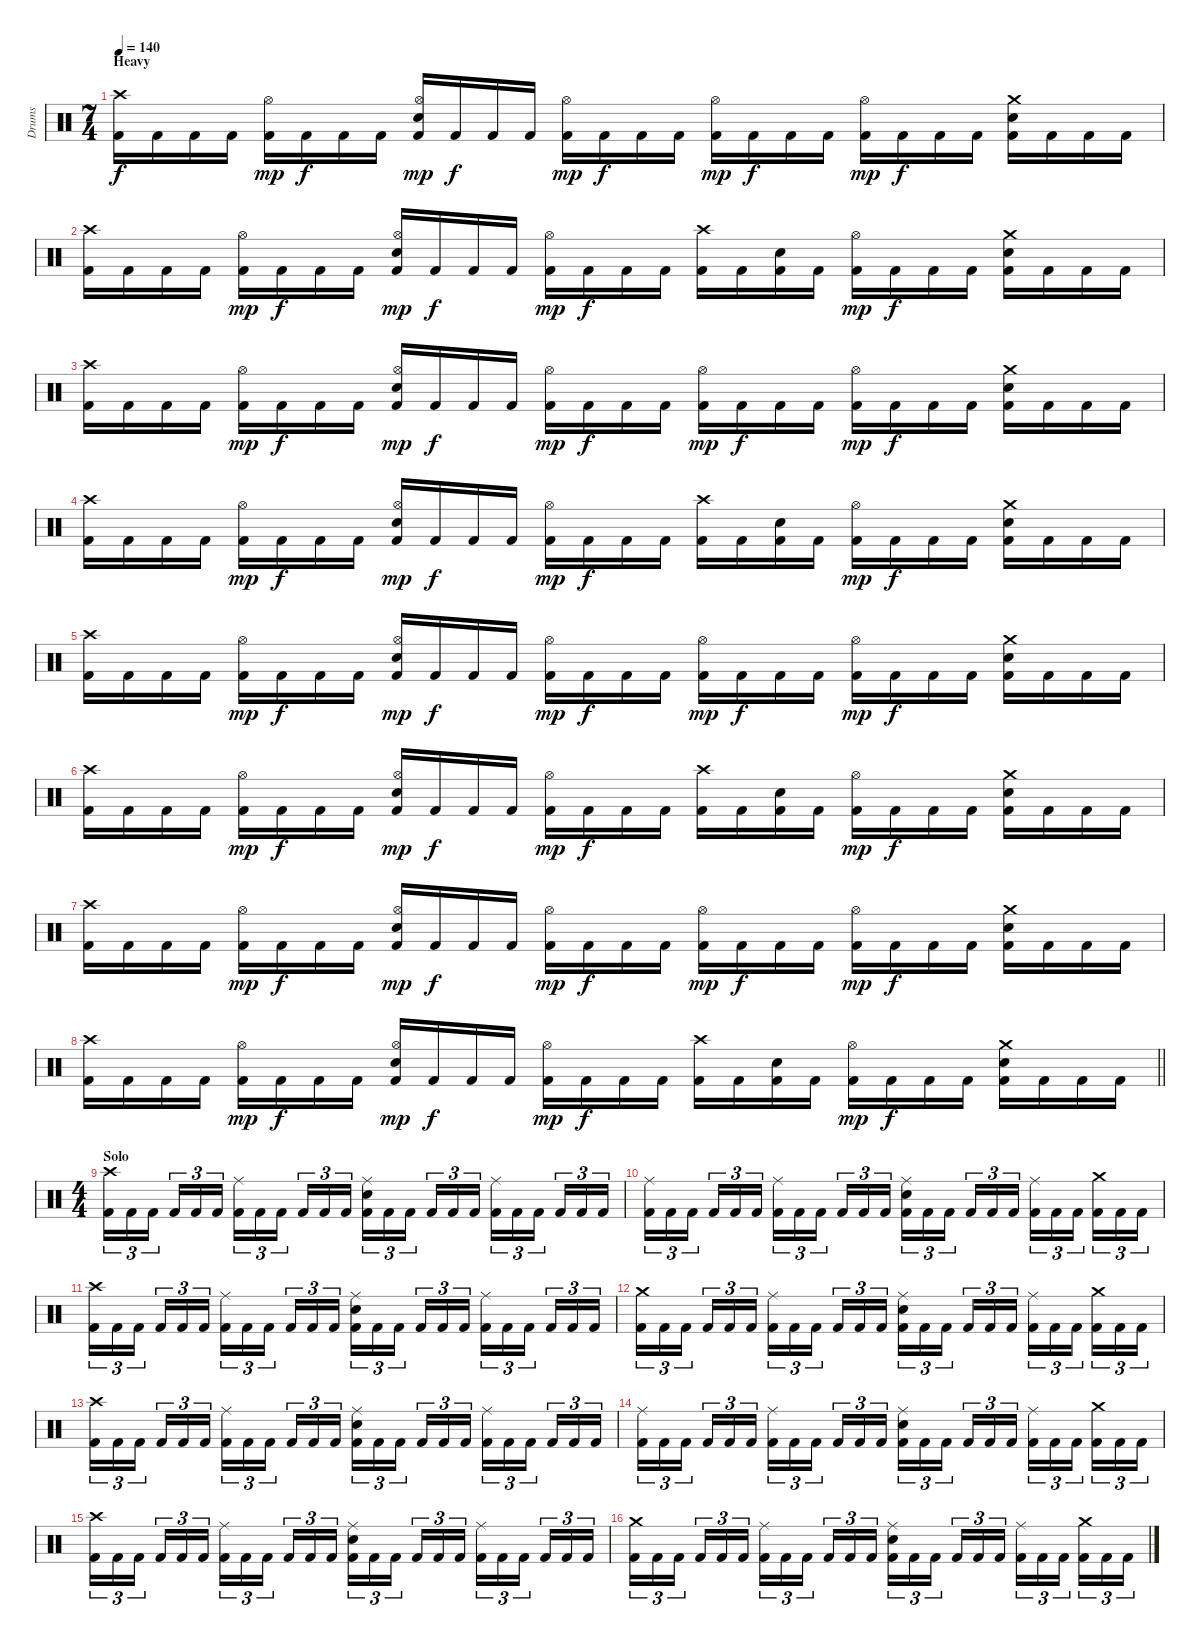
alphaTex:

\track ("Drums" "Drums") {instrument percussion}
\staff {score}
\articulation defaults
\ts (7 4)
\section ("" "Heavy")
\tempo 140
\clef neutral
\ks c
("Crash high (hit)" "Kick (hit) 2").16{dy f} "Kick (hit) 2".16 "Kick (hit) 2".16 "Kick (hit) 2".16 ("Hi-Hat (open)" "Kick (hit) 2").16{dy mp} "Kick (hit) 2".16{dy f} "Kick (hit) 2".16 "Kick (hit) 2".16 ("Hi-Hat (open)" "Snare (hit) 2" "Kick (hit) 2").16{dy mp} "Kick (hit) 2".16{dy f} "Kick (hit) 2".16 "Kick (hit) 2".16 ("Hi-Hat (open)" "Kick (hit) 2").16{dy mp} "Kick (hit) 2".16{dy f} "Kick (hit) 2".16 "Kick (hit) 2".16 ("Hi-Hat (open)" "Kick (hit) 2").16{dy mp} "Kick (hit) 2".16{dy f} "Kick (hit) 2".16 "Kick (hit) 2".16 ("Hi-Hat (open)" "Kick (hit) 2").16{dy mp} "Kick (hit) 2".16{dy f} "Kick (hit) 2".16 "Kick (hit) 2".16 ("Crash medium (hit)" "Snare (hit) 2" "Kick (hit) 2").16 "Kick (hit) 2".16 "Kick (hit) 2".16 "Kick (hit) 2".16 |
("Crash high (hit)" "Kick (hit) 2").16 "Kick (hit) 2".16 "Kick (hit) 2".16 "Kick (hit) 2".16 ("Hi-Hat (open)" "Kick (hit) 2").16{dy mp} "Kick (hit) 2".16{dy f} "Kick (hit) 2".16 "Kick (hit) 2".16 ("Hi-Hat (open)" "Snare (hit) 2" "Kick (hit) 2").16{dy mp} "Kick (hit) 2".16{dy f} "Kick (hit) 2".16 "Kick (hit) 2".16 ("Hi-Hat (open)" "Kick (hit) 2").16{dy mp} "Kick (hit) 2".16{dy f} "Kick (hit) 2".16 "Kick (hit) 2".16 ("Crash high (hit)" "Kick (hit) 2").16 "Kick (hit) 2".16 ("Snare (hit) 2" "Kick (hit) 2").16 "Kick (hit) 2".16 ("Hi-Hat (open)" "Kick (hit) 2").16{dy mp} "Kick (hit) 2".16{dy f} "Kick (hit) 2".16 "Kick (hit) 2".16 ("Crash medium (hit)" "Snare (hit) 2" "Kick (hit) 2").16 "Kick (hit) 2".16 "Kick (hit) 2".16 "Kick (hit) 2".16 |
("Crash high (hit)" "Kick (hit) 2").16 "Kick (hit) 2".16 "Kick (hit) 2".16 "Kick (hit) 2".16 ("Hi-Hat (open)" "Kick (hit) 2").16{dy mp} "Kick (hit) 2".16{dy f} "Kick (hit) 2".16 "Kick (hit) 2".16 ("Hi-Hat (open)" "Snare (hit) 2" "Kick (hit) 2").16{dy mp} "Kick (hit) 2".16{dy f} "Kick (hit) 2".16 "Kick (hit) 2".16 ("Hi-Hat (open)" "Kick (hit) 2").16{dy mp} "Kick (hit) 2".16{dy f} "Kick (hit) 2".16 "Kick (hit) 2".16 ("Hi-Hat (open)" "Kick (hit) 2").16{dy mp} "Kick (hit) 2".16{dy f} "Kick (hit) 2".16 "Kick (hit) 2".16 ("Hi-Hat (open)" "Kick (hit) 2").16{dy mp} "Kick (hit) 2".16{dy f} "Kick (hit) 2".16 "Kick (hit) 2".16 ("Crash medium (hit)" "Snare (hit) 2" "Kick (hit) 2").16 "Kick (hit) 2".16 "Kick (hit) 2".16 "Kick (hit) 2".16 |
("Crash high (hit)" "Kick (hit) 2").16 "Kick (hit) 2".16 "Kick (hit) 2".16 "Kick (hit) 2".16 ("Hi-Hat (open)" "Kick (hit) 2").16{dy mp} "Kick (hit) 2".16{dy f} "Kick (hit) 2".16 "Kick (hit) 2".16 ("Hi-Hat (open)" "Snare (hit) 2" "Kick (hit) 2").16{dy mp} "Kick (hit) 2".16{dy f} "Kick (hit) 2".16 "Kick (hit) 2".16 ("Hi-Hat (open)" "Kick (hit) 2").16{dy mp} "Kick (hit) 2".16{dy f} "Kick (hit) 2".16 "Kick (hit) 2".16 ("Crash high (hit)" "Kick (hit) 2").16 "Kick (hit) 2".16 ("Snare (hit) 2" "Kick (hit) 2").16 "Kick (hit) 2".16 ("Hi-Hat (open)" "Kick (hit) 2").16{dy mp} "Kick (hit) 2".16{dy f} "Kick (hit) 2".16 "Kick (hit) 2".16 ("Crash medium (hit)" "Snare (hit) 2" "Kick (hit) 2").16 "Kick (hit) 2".16 "Kick (hit) 2".16 "Kick (hit) 2".16 |
("Crash high (hit)" "Kick (hit) 2").16 "Kick (hit) 2".16 "Kick (hit) 2".16 "Kick (hit) 2".16 ("Hi-Hat (open)" "Kick (hit) 2").16{dy mp} "Kick (hit) 2".16{dy f} "Kick (hit) 2".16 "Kick (hit) 2".16 ("Hi-Hat (open)" "Snare (hit) 2" "Kick (hit) 2").16{dy mp} "Kick (hit) 2".16{dy f} "Kick (hit) 2".16 "Kick (hit) 2".16 ("Hi-Hat (open)" "Kick (hit) 2").16{dy mp} "Kick (hit) 2".16{dy f} "Kick (hit) 2".16 "Kick (hit) 2".16 ("Hi-Hat (open)" "Kick (hit) 2").16{dy mp} "Kick (hit) 2".16{dy f} "Kick (hit) 2".16 "Kick (hit) 2".16 ("Hi-Hat (open)" "Kick (hit) 2").16{dy mp} "Kick (hit) 2".16{dy f} "Kick (hit) 2".16 "Kick (hit) 2".16 ("Crash medium (hit)" "Snare (hit) 2" "Kick (hit) 2").16 "Kick (hit) 2".16 "Kick (hit) 2".16 "Kick (hit) 2".16 |
("Crash high (hit)" "Kick (hit) 2").16 "Kick (hit) 2".16 "Kick (hit) 2".16 "Kick (hit) 2".16 ("Hi-Hat (open)" "Kick (hit) 2").16{dy mp} "Kick (hit) 2".16{dy f} "Kick (hit) 2".16 "Kick (hit) 2".16 ("Hi-Hat (open)" "Snare (hit) 2" "Kick (hit) 2").16{dy mp} "Kick (hit) 2".16{dy f} "Kick (hit) 2".16 "Kick (hit) 2".16 ("Hi-Hat (open)" "Kick (hit) 2").16{dy mp} "Kick (hit) 2".16{dy f} "Kick (hit) 2".16 "Kick (hit) 2".16 ("Crash high (hit)" "Kick (hit) 2").16 "Kick (hit) 2".16 ("Snare (hit) 2" "Kick (hit) 2").16 "Kick (hit) 2".16 ("Hi-Hat (open)" "Kick (hit) 2").16{dy mp} "Kick (hit) 2".16{dy f} "Kick (hit) 2".16 "Kick (hit) 2".16 ("Crash medium (hit)" "Snare (hit) 2" "Kick (hit) 2").16 "Kick (hit) 2".16 "Kick (hit) 2".16 "Kick (hit) 2".16 |
("Crash high (hit)" "Kick (hit) 2").16 "Kick (hit) 2".16 "Kick (hit) 2".16 "Kick (hit) 2".16 ("Hi-Hat (open)" "Kick (hit) 2").16{dy mp} "Kick (hit) 2".16{dy f} "Kick (hit) 2".16 "Kick (hit) 2".16 ("Hi-Hat (open)" "Snare (hit) 2" "Kick (hit) 2").16{dy mp} "Kick (hit) 2".16{dy f} "Kick (hit) 2".16 "Kick (hit) 2".16 ("Hi-Hat (open)" "Kick (hit) 2").16{dy mp} "Kick (hit) 2".16{dy f} "Kick (hit) 2".16 "Kick (hit) 2".16 ("Hi-Hat (open)" "Kick (hit) 2").16{dy mp} "Kick (hit) 2".16{dy f} "Kick (hit) 2".16 "Kick (hit) 2".16 ("Hi-Hat (open)" "Kick (hit) 2").16{dy mp} "Kick (hit) 2".16{dy f} "Kick (hit) 2".16 "Kick (hit) 2".16 ("Crash medium (hit)" "Snare (hit) 2" "Kick (hit) 2").16 "Kick (hit) 2".16 "Kick (hit) 2".16 "Kick (hit) 2".16 |
\barLineRight lightlight
("Crash high (hit)" "Kick (hit) 2").16 "Kick (hit) 2".16 "Kick (hit) 2".16 "Kick (hit) 2".16 ("Hi-Hat (open)" "Kick (hit) 2").16{dy mp} "Kick (hit) 2".16{dy f} "Kick (hit) 2".16 "Kick (hit) 2".16 ("Hi-Hat (open)" "Snare (hit) 2" "Kick (hit) 2").16{dy mp} "Kick (hit) 2".16{dy f} "Kick (hit) 2".16 "Kick (hit) 2".16 ("Hi-Hat (open)" "Kick (hit) 2").16{dy mp} "Kick (hit) 2".16{dy f} "Kick (hit) 2".16 "Kick (hit) 2".16 ("Crash high (hit)" "Kick (hit) 2").16 "Kick (hit) 2".16 ("Snare (hit) 2" "Kick (hit) 2").16 "Kick (hit) 2".16 ("Hi-Hat (open)" "Kick (hit) 2").16{dy mp} "Kick (hit) 2".16{dy f} "Kick (hit) 2".16 "Kick (hit) 2".16 ("Crash medium (hit)" "Snare (hit) 2" "Kick (hit) 2").16 "Kick (hit) 2".16 "Kick (hit) 2".16 "Kick (hit) 2".16 |
\ts (4 4)
\section ("" "Solo")
("Crash high (hit)" "Kick (hit) 2").16{tu (3 2)} "Kick (hit) 2".16{tu (3 2)} "Kick (hit) 2".16{tu (3 2) beam splitsecondary} "Kick (hit) 2".16{tu (3 2)} "Kick (hit) 2".16{tu (3 2)} "Kick (hit) 2".16{tu (3 2)} ("Ride (middle)" "Kick (hit) 2").16{tu (3 2)} "Kick (hit) 2".16{tu (3 2)} "Kick (hit) 2".16{tu (3 2) beam splitsecondary} "Kick (hit) 2".16{tu (3 2)} "Kick (hit) 2".16{tu (3 2)} "Kick (hit) 2".16{tu (3 2)} ("Ride (middle)" "Snare (hit) 2" "Kick (hit) 2").16{tu (3 2)} "Kick (hit) 2".16{tu (3 2)} "Kick (hit) 2".16{tu (3 2) beam splitsecondary} "Kick (hit) 2".16{tu (3 2)} "Kick (hit) 2".16{tu (3 2)} "Kick (hit) 2".16{tu (3 2)} ("Ride (middle)" "Kick (hit) 2").16{tu (3 2)} "Kick (hit) 2".16{tu (3 2)} "Kick (hit) 2".16{tu (3 2) beam splitsecondary} "Kick (hit) 2".16{tu (3 2)} "Kick (hit) 2".16{tu (3 2)} "Kick (hit) 2".16{tu (3 2)} |
("Ride (middle)" "Kick (hit) 2").16{tu (3 2)} "Kick (hit) 2".16{tu (3 2)} "Kick (hit) 2".16{tu (3 2) beam splitsecondary} "Kick (hit) 2".16{tu (3 2)} "Kick (hit) 2".16{tu (3 2)} "Kick (hit) 2".16{tu (3 2)} ("Ride (middle)" "Kick (hit) 2").16{tu (3 2)} "Kick (hit) 2".16{tu (3 2)} "Kick (hit) 2".16{tu (3 2) beam splitsecondary} "Kick (hit) 2".16{tu (3 2)} "Kick (hit) 2".16{tu (3 2)} "Kick (hit) 2".16{tu (3 2)} ("Ride (middle)" "Snare (hit) 2" "Kick (hit) 2").16{tu (3 2)} "Kick (hit) 2".16{tu (3 2)} "Kick (hit) 2".16{tu (3 2) beam splitsecondary} "Kick (hit) 2".16{tu (3 2)} "Kick (hit) 2".16{tu (3 2)} "Kick (hit) 2".16{tu (3 2)} ("Ride (middle)" "Kick (hit) 2").16{tu (3 2)} "Kick (hit) 2".16{tu (3 2)} "Kick (hit) 2".16{tu (3 2) beam splitsecondary} ("Crash medium (hit)" "Kick (hit) 2").16{tu (3 2)} "Kick (hit) 2".16{tu (3 2)} "Kick (hit) 2".16{tu (3 2)} |
("Crash high (hit)" "Kick (hit) 2").16{tu (3 2)} "Kick (hit) 2".16{tu (3 2)} "Kick (hit) 2".16{tu (3 2) beam splitsecondary} "Kick (hit) 2".16{tu (3 2)} "Kick (hit) 2".16{tu (3 2)} "Kick (hit) 2".16{tu (3 2)} ("Ride (middle)" "Kick (hit) 2").16{tu (3 2)} "Kick (hit) 2".16{tu (3 2)} "Kick (hit) 2".16{tu (3 2) beam splitsecondary} "Kick (hit) 2".16{tu (3 2)} "Kick (hit) 2".16{tu (3 2)} "Kick (hit) 2".16{tu (3 2)} ("Ride (middle)" "Snare (hit) 2" "Kick (hit) 2").16{tu (3 2)} "Kick (hit) 2".16{tu (3 2)} "Kick (hit) 2".16{tu (3 2) beam splitsecondary} "Kick (hit) 2".16{tu (3 2)} "Kick (hit) 2".16{tu (3 2)} "Kick (hit) 2".16{tu (3 2)} ("Ride (middle)" "Kick (hit) 2").16{tu (3 2)} "Kick (hit) 2".16{tu (3 2)} "Kick (hit) 2".16{tu (3 2) beam splitsecondary} "Kick (hit) 2".16{tu (3 2)} "Kick (hit) 2".16{tu (3 2)} "Kick (hit) 2".16{tu (3 2)} |
("Crash medium (hit)" "Kick (hit) 2").16{tu (3 2)} "Kick (hit) 2".16{tu (3 2)} "Kick (hit) 2".16{tu (3 2) beam splitsecondary} "Kick (hit) 2".16{tu (3 2)} "Kick (hit) 2".16{tu (3 2)} "Kick (hit) 2".16{tu (3 2)} ("Ride (middle)" "Kick (hit) 2").16{tu (3 2)} "Kick (hit) 2".16{tu (3 2)} "Kick (hit) 2".16{tu (3 2) beam splitsecondary} "Kick (hit) 2".16{tu (3 2)} "Kick (hit) 2".16{tu (3 2)} "Kick (hit) 2".16{tu (3 2)} ("Ride (middle)" "Snare (hit) 2" "Kick (hit) 2").16{tu (3 2)} "Kick (hit) 2".16{tu (3 2)} "Kick (hit) 2".16{tu (3 2) beam splitsecondary} "Kick (hit) 2".16{tu (3 2)} "Kick (hit) 2".16{tu (3 2)} "Kick (hit) 2".16{tu (3 2)} ("Ride (middle)" "Kick (hit) 2").16{tu (3 2)} "Kick (hit) 2".16{tu (3 2)} "Kick (hit) 2".16{tu (3 2) beam splitsecondary} ("Crash medium (hit)" "Kick (hit) 2").16{tu (3 2)} "Kick (hit) 2".16{tu (3 2)} "Kick (hit) 2".16{tu (3 2)} |
("Crash high (hit)" "Kick (hit) 2").16{tu (3 2)} "Kick (hit) 2".16{tu (3 2)} "Kick (hit) 2".16{tu (3 2) beam splitsecondary} "Kick (hit) 2".16{tu (3 2)} "Kick (hit) 2".16{tu (3 2)} "Kick (hit) 2".16{tu (3 2)} ("Ride (middle)" "Kick (hit) 2").16{tu (3 2)} "Kick (hit) 2".16{tu (3 2)} "Kick (hit) 2".16{tu (3 2) beam splitsecondary} "Kick (hit) 2".16{tu (3 2)} "Kick (hit) 2".16{tu (3 2)} "Kick (hit) 2".16{tu (3 2)} ("Ride (middle)" "Snare (hit) 2" "Kick (hit) 2").16{tu (3 2)} "Kick (hit) 2".16{tu (3 2)} "Kick (hit) 2".16{tu (3 2) beam splitsecondary} "Kick (hit) 2".16{tu (3 2)} "Kick (hit) 2".16{tu (3 2)} "Kick (hit) 2".16{tu (3 2)} ("Ride (middle)" "Kick (hit) 2").16{tu (3 2)} "Kick (hit) 2".16{tu (3 2)} "Kick (hit) 2".16{tu (3 2) beam splitsecondary} "Kick (hit) 2".16{tu (3 2)} "Kick (hit) 2".16{tu (3 2)} "Kick (hit) 2".16{tu (3 2)} |
("Ride (middle)" "Kick (hit) 2").16{tu (3 2)} "Kick (hit) 2".16{tu (3 2)} "Kick (hit) 2".16{tu (3 2) beam splitsecondary} "Kick (hit) 2".16{tu (3 2)} "Kick (hit) 2".16{tu (3 2)} "Kick (hit) 2".16{tu (3 2)} ("Ride (middle)" "Kick (hit) 2").16{tu (3 2)} "Kick (hit) 2".16{tu (3 2)} "Kick (hit) 2".16{tu (3 2) beam splitsecondary} "Kick (hit) 2".16{tu (3 2)} "Kick (hit) 2".16{tu (3 2)} "Kick (hit) 2".16{tu (3 2)} ("Ride (middle)" "Snare (hit) 2" "Kick (hit) 2").16{tu (3 2)} "Kick (hit) 2".16{tu (3 2)} "Kick (hit) 2".16{tu (3 2) beam splitsecondary} "Kick (hit) 2".16{tu (3 2)} "Kick (hit) 2".16{tu (3 2)} "Kick (hit) 2".16{tu (3 2)} ("Ride (middle)" "Kick (hit) 2").16{tu (3 2)} "Kick (hit) 2".16{tu (3 2)} "Kick (hit) 2".16{tu (3 2) beam splitsecondary} ("Crash medium (hit)" "Kick (hit) 2").16{tu (3 2)} "Kick (hit) 2".16{tu (3 2)} "Kick (hit) 2".16{tu (3 2)} |
("Crash high (hit)" "Kick (hit) 2").16{tu (3 2)} "Kick (hit) 2".16{tu (3 2)} "Kick (hit) 2".16{tu (3 2) beam splitsecondary} "Kick (hit) 2".16{tu (3 2)} "Kick (hit) 2".16{tu (3 2)} "Kick (hit) 2".16{tu (3 2)} ("Ride (middle)" "Kick (hit) 2").16{tu (3 2)} "Kick (hit) 2".16{tu (3 2)} "Kick (hit) 2".16{tu (3 2) beam splitsecondary} "Kick (hit) 2".16{tu (3 2)} "Kick (hit) 2".16{tu (3 2)} "Kick (hit) 2".16{tu (3 2)} ("Ride (middle)" "Snare (hit) 2" "Kick (hit) 2").16{tu (3 2)} "Kick (hit) 2".16{tu (3 2)} "Kick (hit) 2".16{tu (3 2) beam splitsecondary} "Kick (hit) 2".16{tu (3 2)} "Kick (hit) 2".16{tu (3 2)} "Kick (hit) 2".16{tu (3 2)} ("Ride (middle)" "Kick (hit) 2").16{tu (3 2)} "Kick (hit) 2".16{tu (3 2)} "Kick (hit) 2".16{tu (3 2) beam splitsecondary} "Kick (hit) 2".16{tu (3 2)} "Kick (hit) 2".16{tu (3 2)} "Kick (hit) 2".16{tu (3 2)} |
("Crash medium (hit)" "Kick (hit) 2").16{tu (3 2)} "Kick (hit) 2".16{tu (3 2)} "Kick (hit) 2".16{tu (3 2) beam splitsecondary} "Kick (hit) 2".16{tu (3 2)} "Kick (hit) 2".16{tu (3 2)} "Kick (hit) 2".16{tu (3 2)} ("Ride (middle)" "Kick (hit) 2").16{tu (3 2)} "Kick (hit) 2".16{tu (3 2)} "Kick (hit) 2".16{tu (3 2) beam splitsecondary} "Kick (hit) 2".16{tu (3 2)} "Kick (hit) 2".16{tu (3 2)} "Kick (hit) 2".16{tu (3 2)} ("Ride (middle)" "Snare (hit) 2" "Kick (hit) 2").16{tu (3 2)} "Kick (hit) 2".16{tu (3 2)} "Kick (hit) 2".16{tu (3 2) beam splitsecondary} "Kick (hit) 2".16{tu (3 2)} "Kick (hit) 2".16{tu (3 2)} "Kick (hit) 2".16{tu (3 2)} ("Ride (middle)" "Kick (hit) 2").16{tu (3 2)} "Kick (hit) 2".16{tu (3 2)} "Kick (hit) 2".16{tu (3 2) beam splitsecondary} ("Crash medium (hit)" "Kick (hit) 2").16{tu (3 2)} "Kick (hit) 2".16{tu (3 2)} "Kick (hit) 2".16{tu (3 2)}
